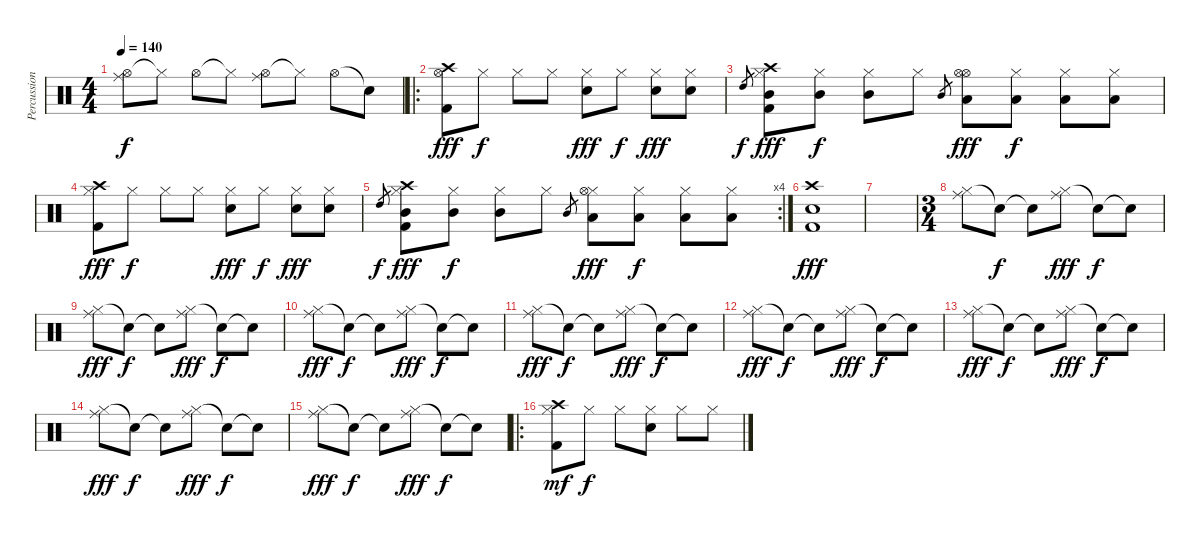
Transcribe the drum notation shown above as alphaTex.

\track ("Percussion" "Percussion") {instrument percussion}
\staff {score}
\articulation defaults
\ts (4 4)
\tempo 140
\clef neutral
\ks c
("Hi-Hat (open)" "Ride (middle)").8{dy f} "Hi-Hat (closed)"{t}.8 "Hi-Hat (open)".8 "Hi-Hat (closed)"{t}.8 ("Hi-Hat (open)" "Ride (middle)").8 "Hi-Hat (closed)"{t}.8 "Hi-Hat (open)".8 "Snare (hit)"{t}.8 |
\ro
("Crash high (hit)" "Hi-Hat (open)" "Kick (hit) 2").8{dy fff} "Hi-Hat (closed)".8{dy f} "Hi-Hat (closed)".8 "Hi-Hat (closed)".8 ("Hi-Hat (closed)" "Electric Snare (hit)").8{dy fff} "Hi-Hat (closed)".8{dy f} ("Hi-Hat (closed)" "Electric Snare (hit)").8{dy fff} ("Hi-Hat (closed)" "Electric Snare (hit)").8 |
"High Tom (hit)".8{gr dy f} ("Crash high (hit)" "Hi-Hat (closed)" "Mid Tom (hit)" "Kick (hit) 2").8{dy fff} ("Hi-Hat (closed)" "Mid Tom (hit)").8{dy f} ("Hi-Hat (closed)" "Mid Tom (hit)").8 "Hi-Hat (closed)".8 "Mid Tom (hit)".8{gr} ("Hi-Hat (open)" "Low Tom (hit)" "Hi-Hat (open)").8{dy fff} ("Hi-Hat (closed)" "Low Tom (hit)").8{dy f} ("Hi-Hat (closed)" "Low Tom (hit)").8 ("Hi-Hat (closed)" "Low Tom (hit)").8 |
("Crash high (hit)" "Hi-Hat (closed)" "Kick (hit) 2").8{dy fff} "Hi-Hat (closed)".8{dy f} "Hi-Hat (closed)".8 "Hi-Hat (closed)".8 ("Hi-Hat (closed)" "Electric Snare (hit)").8{dy fff} "Hi-Hat (closed)".8{dy f} ("Hi-Hat (closed)" "Electric Snare (hit)").8{dy fff} ("Hi-Hat (closed)" "Electric Snare (hit)").8 |
\rc 4 "High Tom (hit)".8{gr dy f}
("Crash high (hit)" "Hi-Hat (closed)" "Mid Tom (hit)" "Kick (hit) 2").8{dy fff} ("Hi-Hat (closed)" "Mid Tom (hit)").8{dy f} ("Hi-Hat (closed)" "Mid Tom (hit)").8 "Hi-Hat (closed)".8 "Mid Tom (hit)".8{gr} ("Hi-Hat (closed)" "Low Tom (hit)" "Hi-Hat (open)").8{dy fff} ("Hi-Hat (closed)" "Low Tom (hit)").8{dy f} ("Hi-Hat (closed)" "Low Tom (hit)").8 ("Hi-Hat (closed)" "Low Tom (hit)").8 |
("Crash high (hit)" "Electric Snare (hit)" "Kick (hit) 2").1{dy fff} |
|
\ts (3 4)
("Hi-Hat (closed)" "Ride (middle)").8 "Snare (hit)"{t}.8{dy f} "Snare (hit)"{t}.8 ("Hi-Hat (closed)" "Ride (middle)").8{dy fff} "Snare (hit)"{t}.8{dy f} "Snare (hit)"{t}.8 |
("Hi-Hat (closed)" "Ride (middle)").8{dy fff} "Snare (hit)"{t}.8{dy f} "Snare (hit)"{t}.8 ("Hi-Hat (closed)" "Ride (middle)").8{dy fff} "Snare (hit)"{t}.8{dy f} "Snare (hit)"{t}.8 |
("Hi-Hat (closed)" "Ride (middle)").8{dy fff} "Snare (hit)"{t}.8{dy f} "Snare (hit)"{t}.8 ("Hi-Hat (closed)" "Ride (middle)").8{dy fff} "Snare (hit)"{t}.8{dy f} "Snare (hit)"{t}.8 |
("Hi-Hat (closed)" "Ride (middle)").8{dy fff} "Snare (hit)"{t}.8{dy f} "Snare (hit)"{t}.8 ("Hi-Hat (closed)" "Ride (middle)").8{dy fff} "Snare (hit)"{t}.8{dy f} "Snare (hit)"{t}.8 |
("Hi-Hat (closed)" "Ride (middle)").8{dy fff} "Snare (hit)"{t}.8{dy f} "Snare (hit)"{t}.8 ("Hi-Hat (closed)" "Ride (middle)").8{dy fff} "Snare (hit)"{t}.8{dy f} "Snare (hit)"{t}.8 |
("Hi-Hat (closed)" "Ride (middle)").8{dy fff} "Snare (hit)"{t}.8{dy f} "Snare (hit)"{t}.8 ("Hi-Hat (closed)" "Ride (middle)").8{dy fff} "Snare (hit)"{t}.8{dy f} "Snare (hit)"{t}.8 |
("Hi-Hat (closed)" "Ride (middle)").8{dy fff} "Snare (hit)"{t}.8{dy f} "Snare (hit)"{t}.8 ("Hi-Hat (closed)" "Ride (middle)").8{dy fff} "Snare (hit)"{t}.8{dy f} "Snare (hit)"{t}.8 |
("Hi-Hat (closed)" "Ride (middle)").8{dy fff} "Snare (hit)"{t}.8{dy f} "Snare (hit)"{t}.8 ("Hi-Hat (closed)" "Ride (middle)").8{dy fff} "Snare (hit)"{t}.8{dy f} "Snare (hit)"{t}.8 |
\ro
("Crash high (hit)" "Hi-Hat (closed)" "Kick (hit) 2").8{dy mf} "Hi-Hat (closed)".8{dy f} "Hi-Hat (closed)".8 ("Hi-Hat (closed)" "Electric Snare (hit)").8 "Hi-Hat (closed)".8 "Hi-Hat (closed)".8
